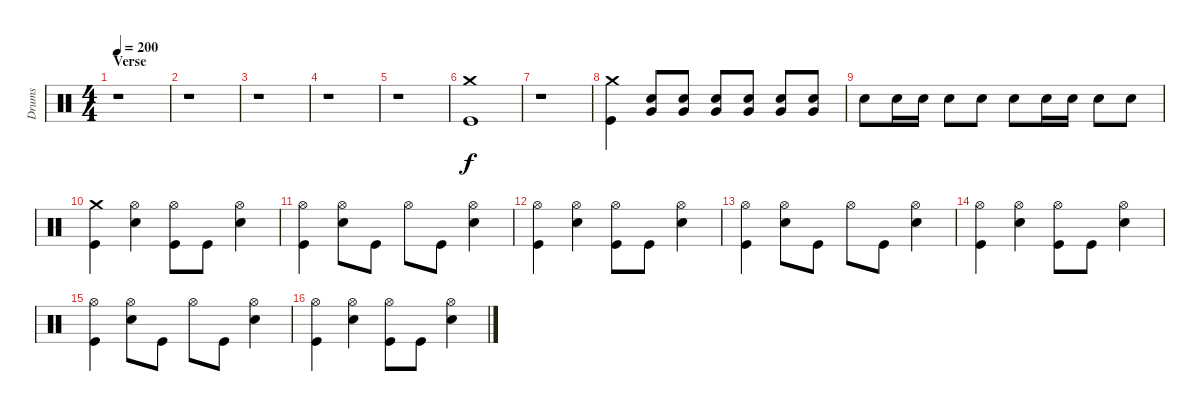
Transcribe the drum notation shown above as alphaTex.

\track ("Drums" "Drums") {instrument percussion}
\staff {score}
\articulation defaults
\ts (4 4)
\section ("" "Verse")
\tempo 200
\clef neutral
\ks c
r.1{dy f} |
r.1 |
r.1 |
r.1 |
r.1 |
("Kick (hit)" "Crash medium (hit)").1 |
r.1 |
("Kick (hit)" "Crash medium (hit)").4 ("Very Low Tom (hit)" "Snare (hit) 2").8 ("Very Low Tom (hit)" "Snare (hit) 2").8 ("Very Low Tom (hit)" "Snare (hit) 2").8 ("Very Low Tom (hit)" "Snare (hit) 2").8 ("Very Low Tom (hit)" "Snare (hit) 2").8 ("Very Low Tom (hit)" "Snare (hit) 2").8 |
"Snare (hit) 2".8 "Snare (hit) 2".16 "Snare (hit) 2".16 "Snare (hit) 2".8 "Snare (hit) 2".8 "Snare (hit) 2".8 "Snare (hit) 2".16 "Snare (hit) 2".16 "Snare (hit) 2".8 "Snare (hit) 2".8 |
("Kick (hit)" "Crash medium (hit)").4 ("Snare (hit) 2" "Hi-Hat (open)").4 ("Kick (hit)" "Hi-Hat (open)").8 "Kick (hit)".8 ("Snare (hit) 2" "Hi-Hat (open)").4 |
("Kick (hit)" "Hi-Hat (open)").4 ("Snare (hit) 2" "Hi-Hat (open)").8 "Kick (hit)".8 "Hi-Hat (open)".8 "Kick (hit)".8 ("Snare (hit) 2" "Hi-Hat (open)").4 |
("Kick (hit)" "Hi-Hat (open)").4 ("Snare (hit) 2" "Hi-Hat (open)").4 ("Kick (hit)" "Hi-Hat (open)").8 "Kick (hit)".8 ("Snare (hit) 2" "Hi-Hat (open)").4 |
("Kick (hit)" "Hi-Hat (open)").4 ("Snare (hit) 2" "Hi-Hat (open)").8 "Kick (hit)".8 "Hi-Hat (open)".8 "Kick (hit)".8 ("Snare (hit) 2" "Hi-Hat (open)").4 |
("Kick (hit)" "Hi-Hat (open)").4 ("Snare (hit) 2" "Hi-Hat (open)").4 ("Kick (hit)" "Hi-Hat (open)").8 "Kick (hit)".8 ("Snare (hit) 2" "Hi-Hat (open)").4 |
("Kick (hit)" "Hi-Hat (open)").4 ("Snare (hit) 2" "Hi-Hat (open)").8 "Kick (hit)".8 "Hi-Hat (open)".8 "Kick (hit)".8 ("Snare (hit) 2" "Hi-Hat (open)").4 |
("Kick (hit)" "Hi-Hat (open)").4 ("Snare (hit) 2" "Hi-Hat (open)").4 ("Kick (hit)" "Hi-Hat (open)").8 "Kick (hit)".8 ("Snare (hit) 2" "Hi-Hat (open)").4
